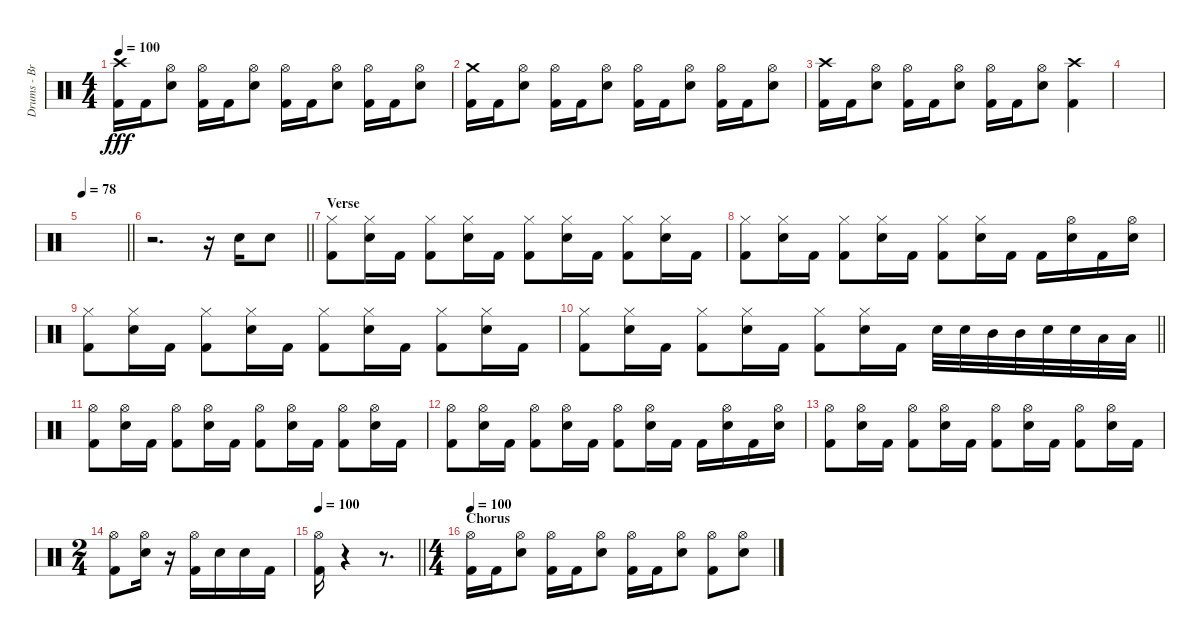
\track ("Drums - Brandon" "Drums - Br") {instrument percussion}
\staff {score}
\articulation defaults
\ts (4 4)
\tempo 100
\clef neutral
\ks c
("Crash high (hit)" "Kick (hit) 2").16{dy fff} "Kick (hit) 2".16 ("Hi-Hat (open)" "Snare (hit) 2").8 ("Hi-Hat (open)" "Kick (hit) 2").16 "Kick (hit) 2".16 ("Hi-Hat (open)" "Snare (hit) 2").8 ("Hi-Hat (open)" "Kick (hit) 2").16 "Kick (hit) 2".16 ("Hi-Hat (open)" "Snare (hit) 2").8 ("Hi-Hat (open)" "Kick (hit) 2").16 "Kick (hit) 2".16 ("Hi-Hat (open)" "Snare (hit) 2").8 |
("Crash medium (hit)" "Kick (hit) 2").16 "Kick (hit) 2".16 ("Hi-Hat (open)" "Snare (hit) 2").8 ("Hi-Hat (open)" "Kick (hit) 2").16 "Kick (hit) 2".16 ("Hi-Hat (open)" "Snare (hit) 2").8 ("Hi-Hat (open)" "Kick (hit) 2").16 "Kick (hit) 2".16 ("Hi-Hat (open)" "Snare (hit) 2").8 ("Hi-Hat (open)" "Kick (hit) 2").16 "Kick (hit) 2".16 ("Hi-Hat (open)" "Snare (hit) 2").8 |
("Crash high (hit)" "Kick (hit) 2").16 "Kick (hit) 2".16 ("Hi-Hat (open)" "Snare (hit) 2").8 ("Hi-Hat (open)" "Kick (hit) 2").16 "Kick (hit) 2".16 ("Hi-Hat (open)" "Snare (hit) 2").8 ("Hi-Hat (open)" "Kick (hit) 2").16 "Kick (hit) 2".16 ("Hi-Hat (open)" "Snare (hit) 2").8 ("Crash high (hit)" "Kick (hit) 2").4 |
|
\tempo 78
\barLineRight lightlight
|
\barLineRight lightlight
r.2{d} r.16 "Snare (hit) 2".16 "Snare (hit) 2".8 |
\section ("" "Verse")
("Hi-Hat (closed)" "Kick (hit) 2").8 ("Hi-Hat (closed)" "Snare (hit) 2").16 "Kick (hit) 2".16 ("Hi-Hat (closed)" "Kick (hit) 2").8 ("Hi-Hat (closed)" "Snare (hit) 2").16 "Kick (hit) 2".16 ("Hi-Hat (closed)" "Kick (hit) 2").8 ("Hi-Hat (closed)" "Snare (hit) 2").16 "Kick (hit) 2".16 ("Hi-Hat (closed)" "Kick (hit) 2").8 ("Hi-Hat (closed)" "Snare (hit) 2").16 "Kick (hit) 2".16 |
("Hi-Hat (closed)" "Kick (hit) 2").8 ("Hi-Hat (closed)" "Snare (hit) 2").16 "Kick (hit) 2".16 ("Hi-Hat (closed)" "Kick (hit) 2").8 ("Hi-Hat (closed)" "Snare (hit) 2").16 "Kick (hit) 2".16 ("Hi-Hat (closed)" "Kick (hit) 2").8 ("Hi-Hat (closed)" "Snare (hit) 2").16 "Kick (hit) 2".16 "Kick (hit) 2".16 ("Hi-Hat (open)" "Snare (hit) 2").16 "Kick (hit) 2".16 ("Hi-Hat (open)" "Snare (hit) 2").16 |
("Hi-Hat (closed)" "Kick (hit) 2").8 ("Hi-Hat (closed)" "Snare (hit) 2").16 "Kick (hit) 2".16 ("Hi-Hat (closed)" "Kick (hit) 2").8 ("Hi-Hat (closed)" "Snare (hit) 2").16 "Kick (hit) 2".16 ("Hi-Hat (closed)" "Kick (hit) 2").8 ("Hi-Hat (closed)" "Snare (hit) 2").16 "Kick (hit) 2".16 ("Hi-Hat (closed)" "Kick (hit) 2").8 ("Hi-Hat (closed)" "Snare (hit) 2").16 "Kick (hit) 2".16 |
\barLineRight lightlight
("Hi-Hat (closed)" "Kick (hit) 2").8 ("Hi-Hat (closed)" "Snare (hit) 2").16 "Kick (hit) 2".16 ("Hi-Hat (closed)" "Kick (hit) 2").8 ("Hi-Hat (closed)" "Snare (hit) 2").16 "Kick (hit) 2".16 ("Hi-Hat (closed)" "Kick (hit) 2").8 ("Hi-Hat (closed)" "Snare (hit) 2").16 "Kick (hit) 2".16 "Snare (hit) 2".32 "Snare (hit) 2".32 "Mid Tom (hit)".32 "Mid Tom (hit)".32 "Snare (hit) 2".32 "Snare (hit) 2".32 "Low Tom (hit)".32 "Low Tom (hit)".32 |
("Hi-Hat (open)" "Kick (hit) 2").8 ("Hi-Hat (open)" "Snare (hit) 2").16 "Kick (hit) 2".16 ("Hi-Hat (open)" "Kick (hit) 2").8 ("Hi-Hat (open)" "Snare (hit) 2").16 "Kick (hit) 2".16 ("Hi-Hat (open)" "Kick (hit) 2").8 ("Hi-Hat (open)" "Snare (hit) 2").16 "Kick (hit) 2".16 ("Hi-Hat (open)" "Kick (hit) 2").8 ("Hi-Hat (open)" "Snare (hit) 2").16 "Kick (hit) 2".16 |
("Hi-Hat (open)" "Kick (hit) 2").8 ("Hi-Hat (open)" "Snare (hit) 2").16 "Kick (hit) 2".16 ("Hi-Hat (open)" "Kick (hit) 2").8 ("Hi-Hat (open)" "Snare (hit) 2").16 "Kick (hit) 2".16 ("Hi-Hat (open)" "Kick (hit) 2").8 ("Hi-Hat (open)" "Snare (hit) 2").16 "Kick (hit) 2".16 "Kick (hit) 2".16 ("Hi-Hat (open)" "Snare (hit) 2").16 "Kick (hit) 2".16 ("Hi-Hat (open)" "Snare (hit) 2").16 |
("Hi-Hat (open)" "Kick (hit) 2").8 ("Hi-Hat (open)" "Snare (hit) 2").16 "Kick (hit) 2".16 ("Hi-Hat (open)" "Kick (hit) 2").8 ("Hi-Hat (open)" "Snare (hit) 2").16 "Kick (hit) 2".16 ("Hi-Hat (open)" "Kick (hit) 2").8 ("Hi-Hat (open)" "Snare (hit) 2").16 "Kick (hit) 2".16 ("Hi-Hat (open)" "Kick (hit) 2").8 ("Hi-Hat (open)" "Snare (hit) 2").16 "Kick (hit) 2".16 |
\ts (2 4)
("Hi-Hat (open)" "Kick (hit) 2").8 ("Hi-Hat (open)" "Snare (hit) 2").16 r.16 ("Hi-Hat (open)" "Kick (hit) 2").16 "Snare (hit) 2".16 "Snare (hit) 2".16 "Kick (hit) 2".16 |
\tempo 100
\barLineRight lightlight
("Hi-Hat (open)" "Kick (hit) 2").16 r.4 r.8{d} |
\ts (4 4)
\section ("" "Chorus")
\tempo 100
("Hi-Hat (open)" "Kick (hit) 2").16 "Kick (hit) 2".16 ("Hi-Hat (open)" "Snare (hit) 2").8 ("Hi-Hat (open)" "Kick (hit) 2").16 "Kick (hit) 2".16 ("Hi-Hat (open)" "Snare (hit) 2").8 ("Hi-Hat (open)" "Kick (hit) 2").16 "Kick (hit) 2".16 ("Hi-Hat (open)" "Snare (hit) 2").8 ("Hi-Hat (open)" "Kick (hit) 2").8 ("Hi-Hat (open)" "Snare (hit) 2").8
